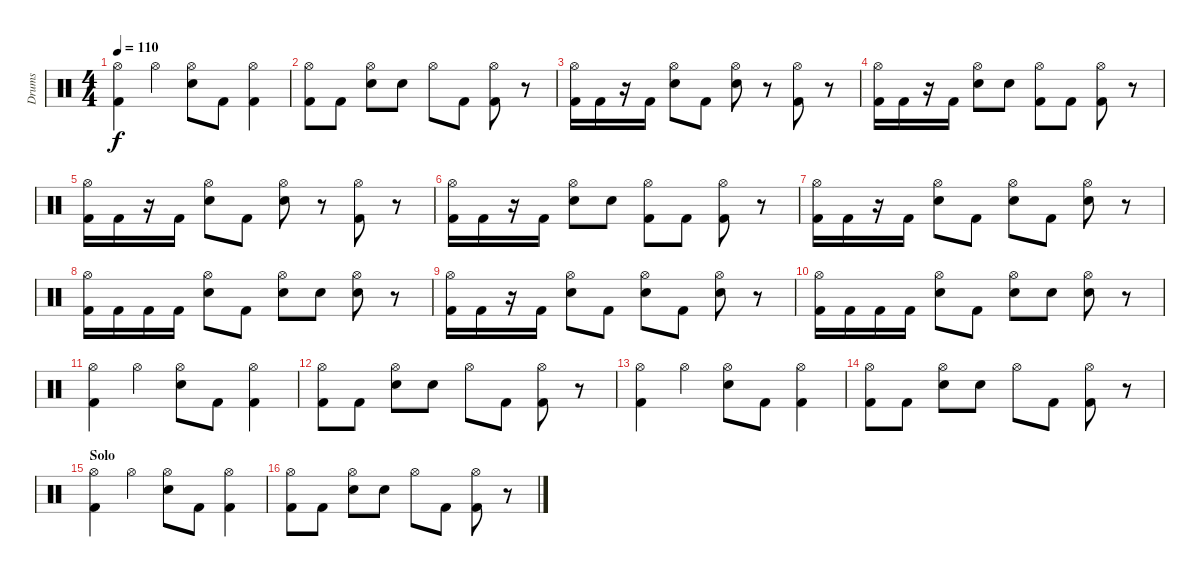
\track ("Drums" "Drums") {instrument percussion}
\staff {score}
\articulation defaults
\ts (4 4)
\tempo 110
\clef neutral
\ks c
("Hi-Hat (open)" "Kick (hit) 2").4{dy f} "Hi-Hat (open)".4 ("Hi-Hat (open)" "Snare (hit) 2").8 "Kick (hit) 2".8 ("Hi-Hat (open)" "Kick (hit) 2").4 |
("Hi-Hat (open)" "Kick (hit) 2").8 "Kick (hit) 2".8 ("Hi-Hat (open)" "Snare (hit) 2").8 "Snare (hit) 2".8 "Hi-Hat (open)".8 "Kick (hit) 2".8 ("Hi-Hat (open)" "Kick (hit) 2").8 r.8 |
("Hi-Hat (open)" "Kick (hit) 2").16 "Kick (hit) 2".16 r.16 "Kick (hit) 2".16 ("Hi-Hat (open)" "Snare (hit) 2").8 "Kick (hit) 2".8 ("Hi-Hat (open)" "Snare (hit) 2").8 r.8 ("Hi-Hat (open)" "Kick (hit) 2").8 r.8 |
("Hi-Hat (open)" "Kick (hit) 2").16 "Kick (hit) 2".16 r.16 "Kick (hit) 2".16 ("Hi-Hat (open)" "Snare (hit) 2").8 "Snare (hit) 2".8 ("Hi-Hat (open)" "Kick (hit) 2").8 "Kick (hit) 2".8 ("Hi-Hat (open)" "Kick (hit) 2").8 r.8 |
("Hi-Hat (open)" "Kick (hit) 2").16 "Kick (hit) 2".16 r.16 "Kick (hit) 2".16 ("Hi-Hat (open)" "Snare (hit) 2").8 "Kick (hit) 2".8 ("Hi-Hat (open)" "Snare (hit) 2").8 r.8 ("Hi-Hat (open)" "Kick (hit) 2").8 r.8 |
("Hi-Hat (open)" "Kick (hit) 2").16 "Kick (hit) 2".16 r.16 "Kick (hit) 2".16 ("Hi-Hat (open)" "Snare (hit) 2").8 "Snare (hit) 2".8 ("Hi-Hat (open)" "Kick (hit) 2").8 "Kick (hit) 2".8 ("Hi-Hat (open)" "Kick (hit) 2").8 r.8 |
("Hi-Hat (open)" "Kick (hit) 2").16 "Kick (hit) 2".16 r.16 "Kick (hit) 2".16 ("Hi-Hat (open)" "Snare (hit) 2").8 "Kick (hit) 2".8 ("Hi-Hat (open)" "Snare (hit) 2").8 "Kick (hit) 2".8 ("Hi-Hat (open)" "Snare (hit) 2").8 r.8 |
("Hi-Hat (open)" "Kick (hit) 2").16 "Kick (hit) 2".16 "Kick (hit) 2".16 "Kick (hit) 2".16 ("Hi-Hat (open)" "Snare (hit) 2").8 "Kick (hit) 2".8 ("Hi-Hat (open)" "Snare (hit) 2").8 "Snare (hit) 2".8 ("Hi-Hat (open)" "Snare (hit) 2").8 r.8 |
("Hi-Hat (open)" "Kick (hit) 2").16 "Kick (hit) 2".16 r.16 "Kick (hit) 2".16 ("Hi-Hat (open)" "Snare (hit) 2").8 "Kick (hit) 2".8 ("Hi-Hat (open)" "Snare (hit) 2").8 "Kick (hit) 2".8 ("Hi-Hat (open)" "Snare (hit) 2").8 r.8 |
("Hi-Hat (open)" "Kick (hit) 2").16 "Kick (hit) 2".16 "Kick (hit) 2".16 "Kick (hit) 2".16 ("Hi-Hat (open)" "Snare (hit) 2").8 "Kick (hit) 2".8 ("Hi-Hat (open)" "Snare (hit) 2").8 "Snare (hit) 2".8 ("Hi-Hat (open)" "Snare (hit) 2").8 r.8 |
("Hi-Hat (open)" "Kick (hit) 2").4 "Hi-Hat (open)".4 ("Hi-Hat (open)" "Snare (hit) 2").8 "Kick (hit) 2".8 ("Hi-Hat (open)" "Kick (hit) 2").4 |
("Hi-Hat (open)" "Kick (hit) 2").8 "Kick (hit) 2".8 ("Hi-Hat (open)" "Snare (hit) 2").8 "Snare (hit) 2".8 "Hi-Hat (open)".8 "Kick (hit) 2".8 ("Hi-Hat (open)" "Kick (hit) 2").8 r.8 |
("Hi-Hat (open)" "Kick (hit) 2").4 "Hi-Hat (open)".4 ("Hi-Hat (open)" "Snare (hit) 2").8 "Kick (hit) 2".8 ("Hi-Hat (open)" "Kick (hit) 2").4 |
("Hi-Hat (open)" "Kick (hit) 2").8 "Kick (hit) 2".8 ("Hi-Hat (open)" "Snare (hit) 2").8 "Snare (hit) 2".8 "Hi-Hat (open)".8 "Kick (hit) 2".8 ("Hi-Hat (open)" "Kick (hit) 2").8 r.8 |
\section ("" "Solo")
("Hi-Hat (open)" "Kick (hit) 2").4 "Hi-Hat (open)".4 ("Hi-Hat (open)" "Snare (hit) 2").8 "Kick (hit) 2".8 ("Hi-Hat (open)" "Kick (hit) 2").4 |
("Hi-Hat (open)" "Kick (hit) 2").8 "Kick (hit) 2".8 ("Hi-Hat (open)" "Snare (hit) 2").8 "Snare (hit) 2".8 "Hi-Hat (open)".8 "Kick (hit) 2".8 ("Hi-Hat (open)" "Kick (hit) 2").8 r.8
